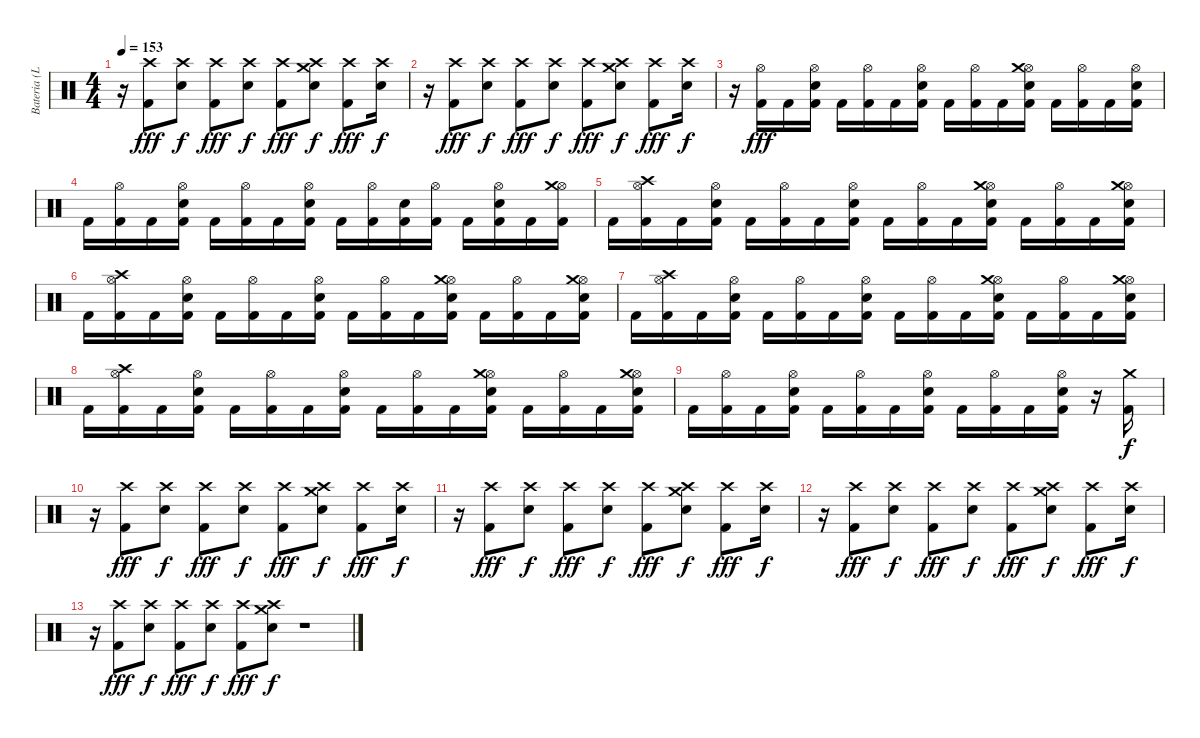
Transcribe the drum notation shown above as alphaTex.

\track ("Bateria (Lars)" "Bateria (L") {instrument percussion}
\staff {score}
\articulation defaults
\ts (4 4)
\tempo 153
\clef neutral
\ks c
r.16{dy f} ("Crash high (hit)" "Kick (hit) 2").8{dy fff} ("Crash high (hit)" "Electric Snare (hit)").8{dy f} ("Crash high (hit)" "Kick (hit) 2").8{dy fff} ("Crash high (hit)" "Electric Snare (hit)").8{dy f} ("Crash high (hit)" "Kick (hit) 2").8{dy fff} ("Crash high (hit)" "Crash medium (hit)" "Electric Snare (hit)").8{dy f} ("Crash high (hit)" "Kick (hit) 2").8{dy fff} ("Crash high (hit)" "Electric Snare (hit)").16{dy f} |
r.16 ("Crash high (hit)" "Kick (hit) 2").8{dy fff} ("Crash high (hit)" "Electric Snare (hit)").8{dy f} ("Crash high (hit)" "Kick (hit) 2").8{dy fff} ("Crash high (hit)" "Electric Snare (hit)").8{dy f} ("Crash high (hit)" "Kick (hit) 2").8{dy fff} ("Crash high (hit)" "Crash medium (hit)" "Electric Snare (hit)").8{dy f} ("Crash high (hit)" "Kick (hit) 2").8{dy fff} ("Crash high (hit)" "Electric Snare (hit)").16{dy f} |
r.16 ("Hi-Hat (open)" "Kick (hit) 2").16{dy fff} "Kick (hit) 2".16 ("Hi-Hat (open)" "Electric Snare (hit)" "Kick (hit) 2").16 "Kick (hit) 2".16 ("Hi-Hat (open)" "Kick (hit) 2").16 "Kick (hit) 2".16 ("Hi-Hat (open)" "Electric Snare (hit)" "Kick (hit) 2").16 "Kick (hit) 2".16 ("Hi-Hat (open)" "Kick (hit) 2").16 "Kick (hit) 2".16 ("Hi-Hat (open)" "Crash medium (hit)" "Electric Snare (hit)" "Kick (hit) 2").16 "Kick (hit) 2".16 ("Hi-Hat (open)" "Kick (hit) 2").16 "Kick (hit) 2".16 ("Hi-Hat (open)" "Electric Snare (hit)" "Kick (hit) 2").16 |
"Kick (hit) 2".16 ("Hi-Hat (open)" "Kick (hit) 2").16 "Kick (hit) 2".16 ("Hi-Hat (open)" "Electric Snare (hit)" "Kick (hit) 2").16 "Kick (hit) 2".16 ("Hi-Hat (open)" "Kick (hit) 2").16 "Kick (hit) 2".16 ("Hi-Hat (open)" "Electric Snare (hit)" "Kick (hit) 2").16 "Kick (hit) 2".16 ("Hi-Hat (open)" "Kick (hit) 2").16 ("Electric Snare (hit)" "Kick (hit) 2").16 ("Hi-Hat (open)" "Kick (hit) 2").16 "Kick (hit) 2".16 ("Hi-Hat (open)" "Electric Snare (hit)" "Kick (hit) 2").16 "Kick (hit) 2".16 ("Hi-Hat (open)" "Crash medium (hit)" "Kick (hit) 2").16 |
"Kick (hit) 2".16 ("Hi-Hat (open)" "Crash high (hit)" "Kick (hit) 2").16 "Kick (hit) 2".16 ("Hi-Hat (open)" "Electric Snare (hit)" "Kick (hit) 2").16 "Kick (hit) 2".16 ("Hi-Hat (open)" "Kick (hit) 2").16 "Kick (hit) 2".16 ("Hi-Hat (open)" "Electric Snare (hit)" "Kick (hit) 2").16 "Kick (hit) 2".16 ("Hi-Hat (open)" "Kick (hit) 2").16 "Kick (hit) 2".16 ("Hi-Hat (open)" "Crash medium (hit)" "Electric Snare (hit)" "Kick (hit) 2").16 "Kick (hit) 2".16 ("Hi-Hat (open)" "Kick (hit) 2").16 "Kick (hit) 2".16 ("Hi-Hat (open)" "Crash medium (hit)" "Electric Snare (hit)" "Kick (hit) 2").16 |
"Kick (hit) 2".16 ("Hi-Hat (open)" "Crash high (hit)" "Kick (hit) 2").16 "Kick (hit) 2".16 ("Hi-Hat (open)" "Electric Snare (hit)" "Kick (hit) 2").16 "Kick (hit) 2".16 ("Hi-Hat (open)" "Kick (hit) 2").16 "Kick (hit) 2".16 ("Hi-Hat (open)" "Electric Snare (hit)" "Kick (hit) 2").16 "Kick (hit) 2".16 ("Hi-Hat (open)" "Kick (hit) 2").16 "Kick (hit) 2".16 ("Hi-Hat (open)" "Crash medium (hit)" "Electric Snare (hit)" "Kick (hit) 2").16 "Kick (hit) 2".16 ("Hi-Hat (open)" "Kick (hit) 2").16 "Kick (hit) 2".16 ("Hi-Hat (open)" "Crash medium (hit)" "Electric Snare (hit)" "Kick (hit) 2").16 |
"Kick (hit) 2".16 ("Hi-Hat (open)" "Crash high (hit)" "Kick (hit) 2").16 "Kick (hit) 2".16 ("Hi-Hat (open)" "Electric Snare (hit)" "Kick (hit) 2").16 "Kick (hit) 2".16 ("Hi-Hat (open)" "Kick (hit) 2").16 "Kick (hit) 2".16 ("Hi-Hat (open)" "Electric Snare (hit)" "Kick (hit) 2").16 "Kick (hit) 2".16 ("Hi-Hat (open)" "Kick (hit) 2").16 "Kick (hit) 2".16 ("Hi-Hat (open)" "Crash medium (hit)" "Electric Snare (hit)" "Kick (hit) 2").16 "Kick (hit) 2".16 ("Hi-Hat (open)" "Kick (hit) 2").16 "Kick (hit) 2".16 ("Hi-Hat (open)" "Crash medium (hit)" "Electric Snare (hit)" "Kick (hit) 2").16 |
"Kick (hit) 2".16 ("Hi-Hat (open)" "Crash high (hit)" "Kick (hit) 2").16 "Kick (hit) 2".16 ("Hi-Hat (open)" "Electric Snare (hit)" "Kick (hit) 2").16 "Kick (hit) 2".16 ("Hi-Hat (open)" "Kick (hit) 2").16 "Kick (hit) 2".16 ("Hi-Hat (open)" "Electric Snare (hit)" "Kick (hit) 2").16 "Kick (hit) 2".16 ("Hi-Hat (open)" "Kick (hit) 2").16 "Kick (hit) 2".16 ("Hi-Hat (open)" "Crash medium (hit)" "Electric Snare (hit)" "Kick (hit) 2").16 "Kick (hit) 2".16 ("Hi-Hat (open)" "Kick (hit) 2").16 "Kick (hit) 2".16 ("Hi-Hat (open)" "Crash medium (hit)" "Electric Snare (hit)" "Kick (hit) 2").16 |
"Kick (hit) 2".16 ("Hi-Hat (open)" "Kick (hit) 2").16 "Kick (hit) 2".16 ("Hi-Hat (open)" "Electric Snare (hit)" "Kick (hit) 2").16 "Kick (hit) 2".16 ("Hi-Hat (open)" "Kick (hit) 2").16 "Kick (hit) 2".16 ("Hi-Hat (open)" "Electric Snare (hit)" "Kick (hit) 2").16 "Kick (hit) 2".16 ("Hi-Hat (open)" "Kick (hit) 2").16 "Kick (hit) 2".16 ("Hi-Hat (open)" "Electric Snare (hit)" "Kick (hit) 2").16 r.16 ("Crash medium (hit)" "Kick (hit) 2").16{dy f} |
r.16 ("Crash high (hit)" "Kick (hit) 2").8{dy fff} ("Crash high (hit)" "Electric Snare (hit)").8{dy f} ("Crash high (hit)" "Kick (hit) 2").8{dy fff} ("Crash high (hit)" "Electric Snare (hit)").8{dy f} ("Crash high (hit)" "Kick (hit) 2").8{dy fff} ("Crash high (hit)" "Crash medium (hit)" "Electric Snare (hit)").8{dy f} ("Crash high (hit)" "Kick (hit) 2").8{dy fff} ("Crash high (hit)" "Electric Snare (hit)").16{dy f} |
r.16 ("Crash high (hit)" "Kick (hit) 2").8{dy fff} ("Crash high (hit)" "Electric Snare (hit)").8{dy f} ("Crash high (hit)" "Kick (hit) 2").8{dy fff} ("Crash high (hit)" "Electric Snare (hit)").8{dy f} ("Crash high (hit)" "Kick (hit) 2").8{dy fff} ("Crash high (hit)" "Crash medium (hit)" "Electric Snare (hit)").8{dy f} ("Crash high (hit)" "Kick (hit) 2").8{dy fff} ("Crash high (hit)" "Electric Snare (hit)").16{dy f} |
r.16 ("Crash high (hit)" "Kick (hit) 2").8{dy fff} ("Crash high (hit)" "Electric Snare (hit)").8{dy f} ("Crash high (hit)" "Kick (hit) 2").8{dy fff} ("Crash high (hit)" "Electric Snare (hit)").8{dy f} ("Crash high (hit)" "Kick (hit) 2").8{dy fff} ("Crash high (hit)" "Crash medium (hit)" "Electric Snare (hit)").8{dy f} ("Crash high (hit)" "Kick (hit) 2").8{dy fff} ("Crash high (hit)" "Electric Snare (hit)").16{dy f} |
r.16 ("Crash high (hit)" "Kick (hit) 2").8{dy fff} ("Crash high (hit)" "Electric Snare (hit)").8{dy f} ("Crash high (hit)" "Kick (hit) 2").8{dy fff} ("Crash high (hit)" "Electric Snare (hit)").8{dy f} ("Crash high (hit)" "Kick (hit) 2").8{dy fff} ("Crash high (hit)" "Crash medium (hit)" "Electric Snare (hit)").8{dy f} r.1
